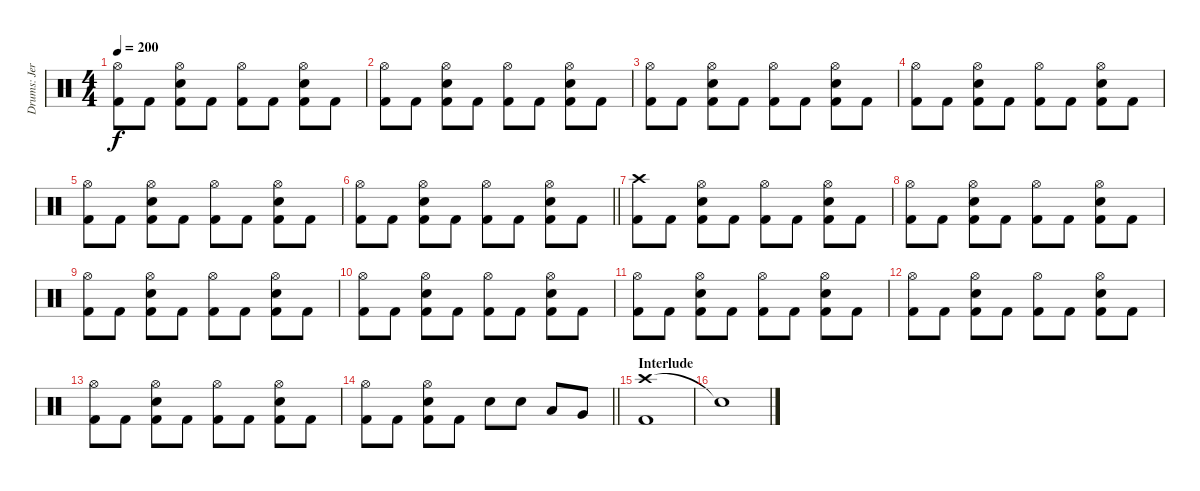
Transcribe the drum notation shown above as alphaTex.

\track ("Drums: Jere Luokkamäki" "Drums: Jer") {instrument percussion}
\staff {score}
\articulation defaults
\ts (4 4)
\tempo 200
\clef neutral
\ks aminor
("Hi-Hat (open)" "Kick (hit) 2").8{dy f} "Kick (hit) 2".8 ("Hi-Hat (open)" "Electric Snare (hit)" "Kick (hit) 2").8 "Kick (hit) 2".8 ("Hi-Hat (open)" "Kick (hit) 2").8 "Kick (hit) 2".8 ("Hi-Hat (open)" "Electric Snare (hit)" "Kick (hit) 2").8 "Kick (hit) 2".8 |
("Hi-Hat (open)" "Kick (hit) 2").8 "Kick (hit) 2".8 ("Hi-Hat (open)" "Electric Snare (hit)" "Kick (hit) 2").8 "Kick (hit) 2".8 ("Hi-Hat (open)" "Kick (hit) 2").8 "Kick (hit) 2".8 ("Hi-Hat (open)" "Electric Snare (hit)" "Kick (hit) 2").8 "Kick (hit) 2".8 |
("Hi-Hat (open)" "Kick (hit) 2").8 "Kick (hit) 2".8 ("Hi-Hat (open)" "Electric Snare (hit)" "Kick (hit) 2").8 "Kick (hit) 2".8 ("Hi-Hat (open)" "Kick (hit) 2").8 "Kick (hit) 2".8 ("Hi-Hat (open)" "Electric Snare (hit)" "Kick (hit) 2").8 "Kick (hit) 2".8 |
("Hi-Hat (open)" "Kick (hit) 2").8 "Kick (hit) 2".8 ("Hi-Hat (open)" "Electric Snare (hit)" "Kick (hit) 2").8 "Kick (hit) 2".8 ("Hi-Hat (open)" "Kick (hit) 2").8 "Kick (hit) 2".8 ("Hi-Hat (open)" "Electric Snare (hit)" "Kick (hit) 2").8 "Kick (hit) 2".8 |
("Hi-Hat (open)" "Kick (hit) 2").8 "Kick (hit) 2".8 ("Hi-Hat (open)" "Electric Snare (hit)" "Kick (hit) 2").8 "Kick (hit) 2".8 ("Hi-Hat (open)" "Kick (hit) 2").8 "Kick (hit) 2".8 ("Hi-Hat (open)" "Electric Snare (hit)" "Kick (hit) 2").8 "Kick (hit) 2".8 |
\barLineRight lightlight
("Hi-Hat (open)" "Kick (hit) 2").8 "Kick (hit) 2".8 ("Hi-Hat (open)" "Electric Snare (hit)" "Kick (hit) 2").8 "Kick (hit) 2".8 ("Hi-Hat (open)" "Kick (hit) 2").8 "Kick (hit) 2".8 ("Hi-Hat (open)" "Electric Snare (hit)" "Kick (hit) 2").8 "Kick (hit) 2".8 |
("Crash high (hit)" "Kick (hit) 2").8 "Kick (hit) 2".8 ("Hi-Hat (open)" "Electric Snare (hit)" "Kick (hit) 2").8 "Kick (hit) 2".8 ("Hi-Hat (open)" "Kick (hit) 2").8 "Kick (hit) 2".8 ("Hi-Hat (open)" "Electric Snare (hit)" "Kick (hit) 2").8 "Kick (hit) 2".8 |
("Hi-Hat (open)" "Kick (hit) 2").8 "Kick (hit) 2".8 ("Hi-Hat (open)" "Electric Snare (hit)" "Kick (hit) 2").8 "Kick (hit) 2".8 ("Hi-Hat (open)" "Kick (hit) 2").8 "Kick (hit) 2".8 ("Hi-Hat (open)" "Electric Snare (hit)" "Kick (hit) 2").8 "Kick (hit) 2".8 |
("Hi-Hat (open)" "Kick (hit) 2").8 "Kick (hit) 2".8 ("Hi-Hat (open)" "Electric Snare (hit)" "Kick (hit) 2").8 "Kick (hit) 2".8 ("Hi-Hat (open)" "Kick (hit) 2").8 "Kick (hit) 2".8 ("Hi-Hat (open)" "Electric Snare (hit)" "Kick (hit) 2").8 "Kick (hit) 2".8 |
("Hi-Hat (open)" "Kick (hit) 2").8 "Kick (hit) 2".8 ("Hi-Hat (open)" "Electric Snare (hit)" "Kick (hit) 2").8 "Kick (hit) 2".8 ("Hi-Hat (open)" "Kick (hit) 2").8 "Kick (hit) 2".8 ("Hi-Hat (open)" "Electric Snare (hit)" "Kick (hit) 2").8 "Kick (hit) 2".8 |
("Hi-Hat (open)" "Kick (hit) 2").8 "Kick (hit) 2".8 ("Hi-Hat (open)" "Electric Snare (hit)" "Kick (hit) 2").8 "Kick (hit) 2".8 ("Hi-Hat (open)" "Kick (hit) 2").8 "Kick (hit) 2".8 ("Hi-Hat (open)" "Electric Snare (hit)" "Kick (hit) 2").8 "Kick (hit) 2".8 |
("Hi-Hat (open)" "Kick (hit) 2").8 "Kick (hit) 2".8 ("Hi-Hat (open)" "Electric Snare (hit)" "Kick (hit) 2").8 "Kick (hit) 2".8 ("Hi-Hat (open)" "Kick (hit) 2").8 "Kick (hit) 2".8 ("Hi-Hat (open)" "Electric Snare (hit)" "Kick (hit) 2").8 "Kick (hit) 2".8 |
("Hi-Hat (open)" "Kick (hit) 2").8 "Kick (hit) 2".8 ("Hi-Hat (open)" "Electric Snare (hit)" "Kick (hit) 2").8 "Kick (hit) 2".8 ("Hi-Hat (open)" "Kick (hit) 2").8 "Kick (hit) 2".8 ("Hi-Hat (open)" "Electric Snare (hit)" "Kick (hit) 2").8 "Kick (hit) 2".8 |
\barLineRight lightlight
("Hi-Hat (open)" "Kick (hit) 2").8 "Kick (hit) 2".8 ("Hi-Hat (open)" "Electric Snare (hit)" "Kick (hit) 2").8 "Kick (hit) 2".8 "Electric Snare (hit)".8 "Electric Snare (hit)".8 "Low Tom (hit)".8 "Very Low Tom (hit)".8 |
\section ("" "Interlude")
("Crash high (hit)" "Kick (hit) 2").1 |
"Snare (hit)"{t}.1
